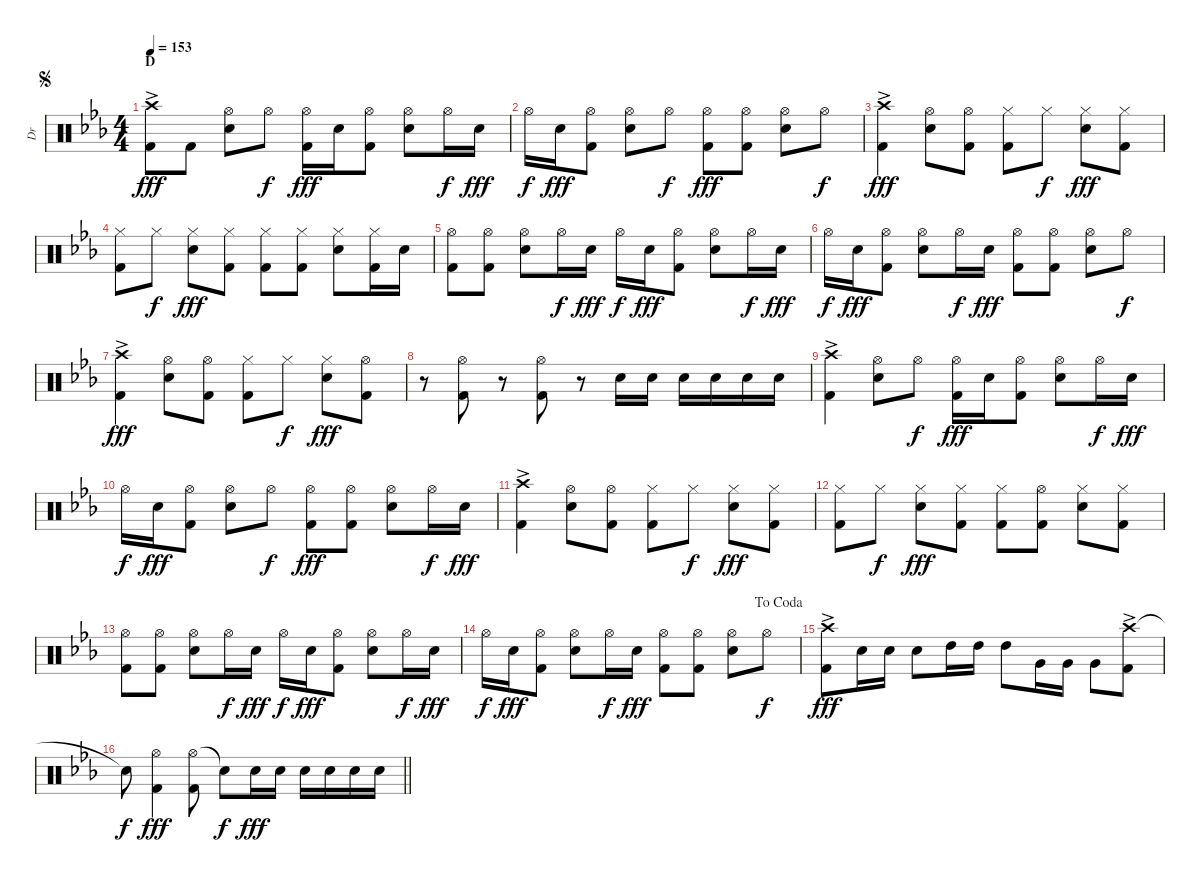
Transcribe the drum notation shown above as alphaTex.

\track ("Dr" "Dr") {instrument percussion}
\staff {score}
\articulation defaults
\ts (4 4)
\section ("" "D")
\jump segno
\tempo 153
\clef neutral
\ks cminor
("Crash high (hit)"{ac} "Kick (hit) 2"{ac}).8{dy fff} "Kick (hit) 2".8 ("Hi-Hat (open)" "Electric Snare (hit)").8 "Hi-Hat (open)".8{dy f} ("Hi-Hat (open)" "Kick (hit) 2").16{dy fff} "Electric Snare (hit)".16 ("Hi-Hat (open)" "Kick (hit) 2").8 ("Hi-Hat (open)" "Electric Snare (hit)").8 "Hi-Hat (open)".16{dy f} "Electric Snare (hit)".16{dy fff} |
"Hi-Hat (open)".16{dy f} "Electric Snare (hit)".16{dy fff} ("Hi-Hat (open)" "Kick (hit) 2").8 ("Hi-Hat (open)" "Electric Snare (hit)").8 "Hi-Hat (open)".8{dy f} ("Hi-Hat (open)" "Kick (hit) 2").8{dy fff} ("Hi-Hat (open)" "Kick (hit) 2").8 ("Hi-Hat (open)" "Electric Snare (hit)").8 "Hi-Hat (open)".8{dy f} |
("Crash high (hit)"{ac} "Kick (hit) 2"{ac}).4{dy fff} ("Hi-Hat (open)" "Electric Snare (hit)").8 ("Hi-Hat (open)" "Kick (hit) 2").8 ("Hi-Hat (closed)" "Kick (hit) 2").8 "Hi-Hat (closed)".8{dy f} ("Hi-Hat (closed)" "Electric Snare (hit)").8{dy fff} ("Hi-Hat (closed)" "Kick (hit) 2").8 |
("Hi-Hat (closed)" "Kick (hit) 2").8 "Hi-Hat (closed)".8{dy f} ("Hi-Hat (closed)" "Electric Snare (hit)").8{dy fff} ("Hi-Hat (closed)" "Kick (hit) 2").8 ("Hi-Hat (closed)" "Kick (hit) 2").8 ("Hi-Hat (closed)" "Kick (hit) 2").8 ("Hi-Hat (closed)" "Electric Snare (hit)").8 ("Hi-Hat (closed)" "Kick (hit) 2").16 "Electric Snare (hit)".16 |
("Hi-Hat (open)" "Kick (hit) 2").8 ("Hi-Hat (open)" "Kick (hit) 2").8 ("Hi-Hat (open)" "Electric Snare (hit)").8 "Hi-Hat (open)".16{dy f} "Electric Snare (hit)".16{dy fff} "Hi-Hat (open)".16{dy f} "Electric Snare (hit)".16{dy fff} ("Hi-Hat (open)" "Kick (hit) 2").8 ("Hi-Hat (open)" "Electric Snare (hit)").8 "Hi-Hat (open)".16{dy f} "Electric Snare (hit)".16{dy fff} |
"Hi-Hat (open)".16{dy f} "Electric Snare (hit)".16{dy fff} ("Hi-Hat (open)" "Kick (hit) 2").8 ("Hi-Hat (open)" "Electric Snare (hit)").8 "Hi-Hat (open)".16{dy f} "Electric Snare (hit)".16{dy fff} ("Hi-Hat (open)" "Kick (hit) 2").8 ("Hi-Hat (open)" "Kick (hit) 2").8 ("Hi-Hat (open)" "Electric Snare (hit)").8 "Hi-Hat (open)".8{dy f} |
("Crash high (hit)"{ac} "Kick (hit) 2"{ac}).4{dy fff} ("Hi-Hat (open)" "Electric Snare (hit)").8 ("Hi-Hat (open)" "Kick (hit) 2").8 ("Hi-Hat (closed)" "Kick (hit) 2").8 "Hi-Hat (closed)".8{dy f} ("Hi-Hat (closed)" "Electric Snare (hit)").8{dy fff} ("Hi-Hat (open)" "Kick (hit) 2").8 |
r.8 ("Hi-Hat (open)" "Kick (hit) 2").8 r.8 ("Hi-Hat (open)" "Kick (hit) 2").8 r.8 "Electric Snare (hit)".16 "Electric Snare (hit)".16 "Electric Snare (hit)".16 "Electric Snare (hit)".16 "Electric Snare (hit)".16 "Electric Snare (hit)".16 |
("Crash high (hit)"{ac} "Kick (hit) 2"{ac}).4 ("Hi-Hat (open)" "Electric Snare (hit)").8 "Hi-Hat (open)".8{dy f} ("Hi-Hat (open)" "Kick (hit) 2").16{dy fff} "Electric Snare (hit)".16 ("Hi-Hat (open)" "Kick (hit) 2").8 ("Hi-Hat (open)" "Electric Snare (hit)").8 "Hi-Hat (open)".16{dy f} "Electric Snare (hit)".16{dy fff} |
"Hi-Hat (open)".16{dy f} "Electric Snare (hit)".16{dy fff} ("Hi-Hat (open)" "Kick (hit) 2").8 ("Hi-Hat (open)" "Electric Snare (hit)").8 "Hi-Hat (open)".8{dy f} ("Hi-Hat (open)" "Kick (hit) 2").8{dy fff} ("Hi-Hat (open)" "Kick (hit) 2").8 ("Hi-Hat (open)" "Electric Snare (hit)").8 "Hi-Hat (open)".16{dy f} "Electric Snare (hit)".16{dy fff} |
("Crash high (hit)"{ac} "Kick (hit) 2"{ac}).4 ("Hi-Hat (open)" "Electric Snare (hit)").8 ("Hi-Hat (open)" "Kick (hit) 2").8 ("Hi-Hat (closed)" "Kick (hit) 2").8 "Hi-Hat (closed)".8{dy f} ("Hi-Hat (closed)" "Electric Snare (hit)").8{dy fff} ("Hi-Hat (closed)" "Kick (hit) 2").8 |
("Hi-Hat (closed)" "Kick (hit) 2").8 "Hi-Hat (closed)".8{dy f} ("Hi-Hat (closed)" "Electric Snare (hit)").8{dy fff} ("Hi-Hat (closed)" "Kick (hit) 2").8 ("Hi-Hat (closed)" "Kick (hit) 2").8 ("Hi-Hat (open)" "Kick (hit) 2").8 ("Hi-Hat (closed)" "Electric Snare (hit)").8 ("Hi-Hat (closed)" "Kick (hit) 2").8 |
("Hi-Hat (open)" "Kick (hit) 2").8 ("Hi-Hat (open)" "Kick (hit) 2").8 ("Hi-Hat (open)" "Electric Snare (hit)").8 "Hi-Hat (open)".16{dy f} "Electric Snare (hit)".16{dy fff} "Hi-Hat (open)".16{dy f} "Electric Snare (hit)".16{dy fff} ("Hi-Hat (open)" "Kick (hit) 2").8 ("Hi-Hat (open)" "Electric Snare (hit)").8 "Hi-Hat (open)".16{dy f} "Electric Snare (hit)".16{dy fff} |
\jump dacoda "Hi-Hat (open)".16{dy f} "Electric Snare (hit)".16{dy fff}
("Hi-Hat (open)" "Kick (hit) 2").8 ("Hi-Hat (open)" "Electric Snare (hit)").8 "Hi-Hat (open)".16{dy f} "Electric Snare (hit)".16{dy fff} ("Hi-Hat (open)" "Kick (hit) 2").8 ("Hi-Hat (open)" "Kick (hit) 2").8 ("Hi-Hat (open)" "Electric Snare (hit)").8 "Hi-Hat (open)".8{dy f} |
("Crash high (hit)"{ac} "Kick (hit) 2"{ac}).8{dy fff} "Electric Snare (hit)".16 "Electric Snare (hit)".16 "Electric Snare (hit)".8 "High Tom (hit)".16 "High Tom (hit)".16 "High Tom (hit)".8 "Very Low Tom (hit)".16 "Very Low Tom (hit)".16 "Very Low Tom (hit)".8 ("Crash high (hit)"{ac} "Kick (hit) 2"{ac}).8 |
\barLineRight lightlight "Snare (hit)"{t}.8{dy f}
("Hi-Hat (open)" "Kick (hit) 2").4{dy fff} ("Hi-Hat (open)" "Kick (hit) 2").8 "Snare (hit)"{t}.8{dy f} "Electric Snare (hit)".16{dy fff} "Electric Snare (hit)".16 "Electric Snare (hit)".16 "Electric Snare (hit)".16 "Electric Snare (hit)".16 "Electric Snare (hit)".16
